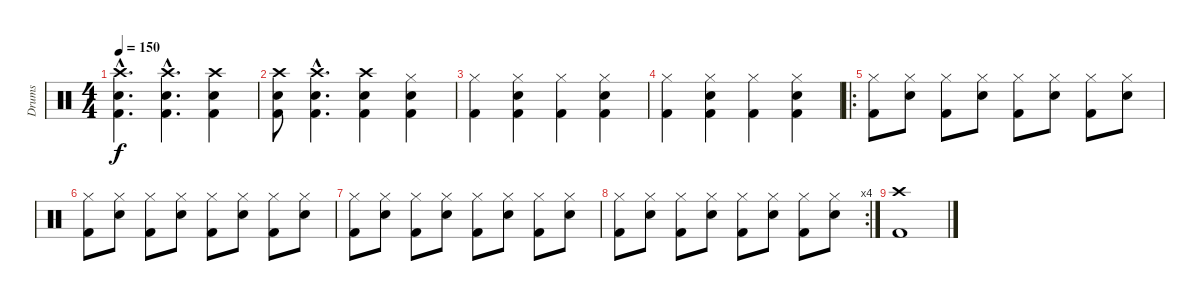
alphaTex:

\track ("Drums" "Drums") {instrument percussion}
\staff {score}
\articulation defaults
\ts (4 4)
\tempo 150
\clef neutral
\ks c
("Crash high (hit)"{hac} "Kick (hit) 2"{hac} "Electric Snare (hit)"{hac}).4{d dy f} ("Crash high (hit)"{hac} "Kick (hit) 2"{hac} "Electric Snare (hit)"{hac}).4{d} ("Crash high (hit)" "Kick (hit) 2" "Electric Snare (hit)").4 |
("Crash high (hit)" "Kick (hit) 2" "Electric Snare (hit)").8 ("Crash high (hit)"{hac} "Kick (hit) 2"{hac} "Electric Snare (hit)"{hac}).4{d} ("Crash high (hit)" "Kick (hit) 2" "Electric Snare (hit)").4 ("Hi-Hat (closed)" "Kick (hit) 2" "Electric Snare (hit)").4 |
("Hi-Hat (closed)" "Kick (hit) 2").4 ("Hi-Hat (closed)" "Electric Snare (hit)" "Kick (hit) 2").4 ("Hi-Hat (closed)" "Kick (hit) 2").4 ("Hi-Hat (closed)" "Electric Snare (hit)" "Kick (hit) 2").4 |
("Hi-Hat (closed)" "Kick (hit) 2").4 ("Hi-Hat (closed)" "Electric Snare (hit)" "Kick (hit) 2").4 ("Hi-Hat (closed)" "Kick (hit) 2").4 ("Hi-Hat (closed)" "Electric Snare (hit)" "Kick (hit) 2").4 |
\ro
("Hi-Hat (closed)" "Kick (hit) 2").8 ("Hi-Hat (closed)" "Electric Snare (hit)").8 ("Hi-Hat (closed)" "Kick (hit) 2").8 ("Hi-Hat (closed)" "Electric Snare (hit)").8 ("Hi-Hat (closed)" "Kick (hit) 2").8 ("Hi-Hat (closed)" "Electric Snare (hit)").8 ("Hi-Hat (closed)" "Kick (hit) 2").8 ("Hi-Hat (closed)" "Electric Snare (hit)").8 |
("Hi-Hat (closed)" "Kick (hit) 2").8 ("Hi-Hat (closed)" "Electric Snare (hit)").8 ("Hi-Hat (closed)" "Kick (hit) 2").8 ("Hi-Hat (closed)" "Electric Snare (hit)").8 ("Hi-Hat (closed)" "Kick (hit) 2").8 ("Hi-Hat (closed)" "Electric Snare (hit)").8 ("Hi-Hat (closed)" "Kick (hit) 2").8 ("Hi-Hat (closed)" "Electric Snare (hit)").8 |
("Hi-Hat (closed)" "Kick (hit) 2").8 ("Hi-Hat (closed)" "Electric Snare (hit)").8 ("Hi-Hat (closed)" "Kick (hit) 2").8 ("Hi-Hat (closed)" "Electric Snare (hit)").8 ("Hi-Hat (closed)" "Kick (hit) 2").8 ("Hi-Hat (closed)" "Electric Snare (hit)").8 ("Hi-Hat (closed)" "Kick (hit) 2").8 ("Hi-Hat (closed)" "Electric Snare (hit)").8 |
\rc 4
("Hi-Hat (closed)" "Kick (hit) 2").8 ("Hi-Hat (closed)" "Electric Snare (hit)").8 ("Hi-Hat (closed)" "Kick (hit) 2").8 ("Hi-Hat (closed)" "Electric Snare (hit)").8 ("Hi-Hat (closed)" "Kick (hit) 2").8 ("Hi-Hat (closed)" "Electric Snare (hit)").8 ("Hi-Hat (closed)" "Kick (hit) 2").8 ("Hi-Hat (closed)" "Electric Snare (hit)").8 |
("Crash high (hit)" "Kick (hit) 2").1
